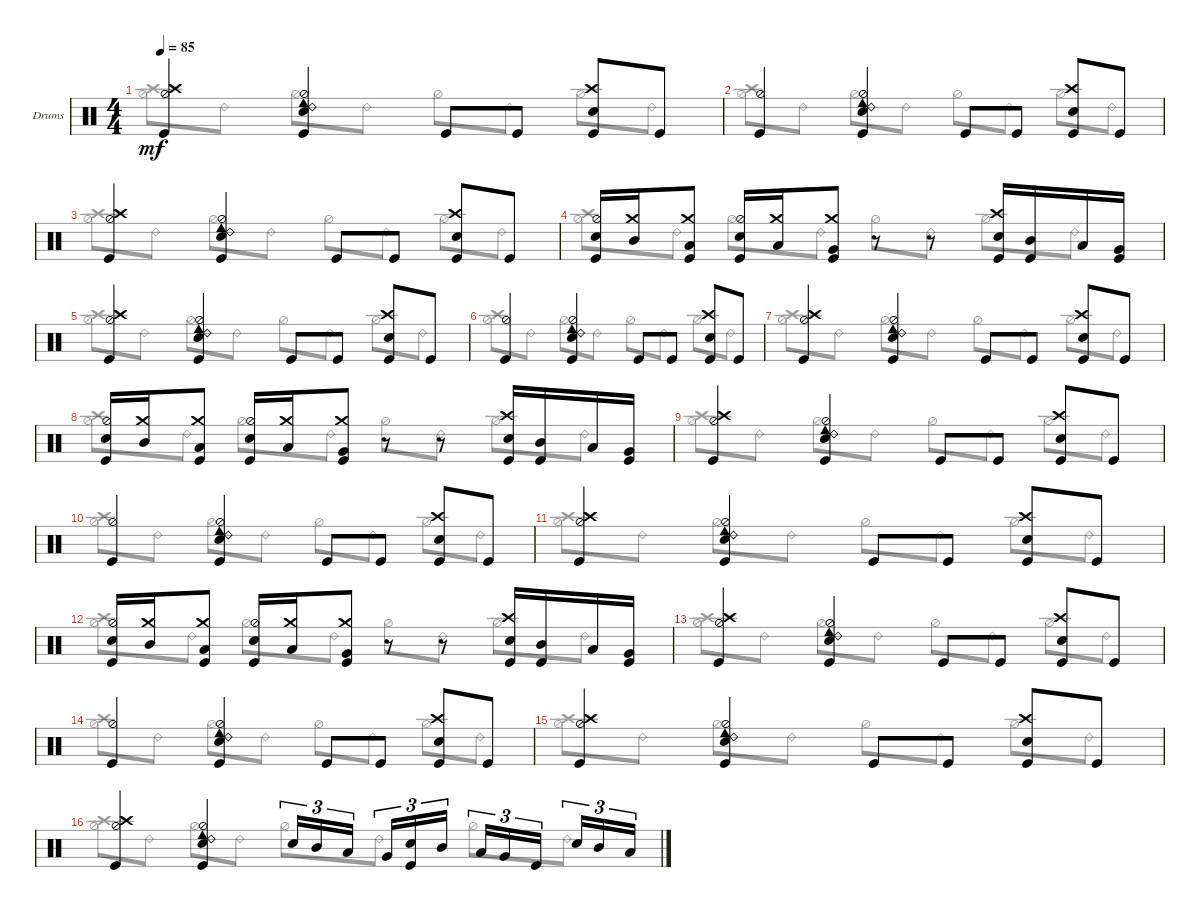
\defaultSystemsLayout 4
\bracketExtendMode groupsimilarinstruments
\firstSystemTrackNameOrientation horizontal
\otherSystemsTrackNameOrientation horizontal
\track ("Drumkit" "Drums") {instrument percussion}
\staff {score}
\articulation defaults
\voice
\ts (4 4)
\tempo 85
\clef neutral
\scale
0.333333
\ks c
("Kick (hit)" "Hi-Hat (half)" "Crash high (hit)").4{dy mf} ("Snare (hit) 2" "Hi-Hat (half)" "Cowbell low (hit)" "Ride (bell) 2" "Kick (hit)").4 "Kick (hit)".8 "Kick (hit)".8 ("Snare (hit) 2" "Kick (hit)" "Crash high (hit)").8 "Kick (hit)".8 |
\scale
0.333333 ("Kick (hit)" "Hi-Hat (half)").4 ("Snare (hit) 2" "Hi-Hat (half)" "Cowbell low (hit)" "Ride (bell) 2" "Kick (hit)").4 "Kick (hit)".8 "Kick (hit)".8 ("Snare (hit) 2" "Kick (hit)" "Crash high (hit)").8 "Kick (hit)".8 |
\scale
0.333333 ("Kick (hit)" "Hi-Hat (half)" "Crash high (hit)").4 ("Snare (hit) 2" "Hi-Hat (half)" "Cowbell low (hit)" "Ride (bell) 2" "Kick (hit)").4 "Kick (hit)".8 "Kick (hit)".8 ("Snare (hit) 2" "Kick (hit)" "Crash high (hit)").8 "Kick (hit)".8 |
\scale
0.333333 ("Kick (hit)" "Hi-Hat (half)" "Snare (hit) 2").16 ("Crash medium (hit)" "Mid Tom (hit)").16 ("Kick (hit)" "Low Tom (hit)" "Crash medium (hit)").8 ("Kick (hit)" "Hi-Hat (half)" "Snare (hit) 2").16 ("Crash medium (hit)" "Low Tom (hit)").16 ("Kick (hit)" "Crash medium (hit)" "Very Low Tom (hit)").8 r.8 r.8 ("Snare (hit) 2" "Kick (hit)" "Crash high (hit)").16 ("Kick (hit)" "Mid Tom (hit)").16 "Low Tom (hit)".16 ("Very Low Tom (hit)" "Kick (hit)").16 |
\scale
0.333333 ("Kick (hit)" "Hi-Hat (half)" "Crash high (hit)").4 ("Snare (hit) 2" "Hi-Hat (half)" "Cowbell low (hit)" "Ride (bell) 2" "Kick (hit)").4 "Kick (hit)".8 "Kick (hit)".8 ("Snare (hit) 2" "Kick (hit)" "Crash high (hit)").8 "Kick (hit)".8 |
\scale
0.333333 ("Kick (hit)" "Hi-Hat (half)").4 ("Snare (hit) 2" "Hi-Hat (half)" "Cowbell low (hit)" "Ride (bell) 2" "Kick (hit)").4 "Kick (hit)".8 "Kick (hit)".8 ("Snare (hit) 2" "Kick (hit)" "Crash high (hit)").8 "Kick (hit)".8 |
\scale
0.333333 ("Kick (hit)" "Hi-Hat (half)" "Crash high (hit)").4 ("Snare (hit) 2" "Hi-Hat (half)" "Cowbell low (hit)" "Ride (bell) 2" "Kick (hit)").4 "Kick (hit)".8 "Kick (hit)".8 ("Snare (hit) 2" "Kick (hit)" "Crash high (hit)").8 "Kick (hit)".8 |
\scale
0.333333 ("Kick (hit)" "Hi-Hat (half)" "Snare (hit) 2").16 ("Crash medium (hit)" "Mid Tom (hit)").16 ("Kick (hit)" "Low Tom (hit)" "Crash medium (hit)").8 ("Kick (hit)" "Hi-Hat (half)" "Snare (hit) 2").16 ("Crash medium (hit)" "Low Tom (hit)").16 ("Kick (hit)" "Crash medium (hit)" "Very Low Tom (hit)").8 r.8 r.8 ("Snare (hit) 2" "Kick (hit)" "Crash high (hit)").16 ("Kick (hit)" "Mid Tom (hit)").16 "Low Tom (hit)".16 ("Very Low Tom (hit)" "Kick (hit)").16 |
\scale
0.333333 ("Kick (hit)" "Hi-Hat (half)" "Crash high (hit)").4 ("Snare (hit) 2" "Hi-Hat (half)" "Cowbell low (hit)" "Ride (bell) 2" "Kick (hit)").4 "Kick (hit)".8 "Kick (hit)".8 ("Snare (hit) 2" "Kick (hit)" "Crash high (hit)").8 "Kick (hit)".8 |
\scale
0.333333 ("Kick (hit)" "Hi-Hat (half)").4 ("Snare (hit) 2" "Hi-Hat (half)" "Cowbell low (hit)" "Ride (bell) 2" "Kick (hit)").4 "Kick (hit)".8 "Kick (hit)".8 ("Snare (hit) 2" "Kick (hit)" "Crash high (hit)").8 "Kick (hit)".8 |
\scale
0.333333 ("Kick (hit)" "Hi-Hat (half)" "Crash high (hit)").4 ("Snare (hit) 2" "Hi-Hat (half)" "Cowbell low (hit)" "Ride (bell) 2" "Kick (hit)").4 "Kick (hit)".8 "Kick (hit)".8 ("Snare (hit) 2" "Kick (hit)" "Crash high (hit)").8 "Kick (hit)".8 |
\scale
0.333333 ("Kick (hit)" "Hi-Hat (half)" "Snare (hit) 2").16 ("Crash medium (hit)" "Mid Tom (hit)").16 ("Kick (hit)" "Low Tom (hit)" "Crash medium (hit)").8 ("Kick (hit)" "Hi-Hat (half)" "Snare (hit) 2").16 ("Crash medium (hit)" "Low Tom (hit)").16 ("Kick (hit)" "Crash medium (hit)" "Very Low Tom (hit)").8 r.8 r.8 ("Snare (hit) 2" "Kick (hit)" "Crash high (hit)").16 ("Kick (hit)" "Mid Tom (hit)").16 "Low Tom (hit)".16 ("Very Low Tom (hit)" "Kick (hit)").16 |
\scale
0.333333 ("Kick (hit)" "Hi-Hat (half)" "Crash high (hit)").4 ("Snare (hit) 2" "Hi-Hat (half)" "Cowbell low (hit)" "Ride (bell) 2" "Kick (hit)").4 "Kick (hit)".8 "Kick (hit)".8 ("Snare (hit) 2" "Kick (hit)" "Crash high (hit)").8 "Kick (hit)".8 |
\scale
0.333333 ("Kick (hit)" "Hi-Hat (half)").4 ("Snare (hit) 2" "Hi-Hat (half)" "Cowbell low (hit)" "Ride (bell) 2" "Kick (hit)").4 "Kick (hit)".8 "Kick (hit)".8 ("Snare (hit) 2" "Kick (hit)" "Crash high (hit)").8 "Kick (hit)".8 |
\scale
0.333333 ("Kick (hit)" "Hi-Hat (half)" "Crash high (hit)").4 ("Snare (hit) 2" "Hi-Hat (half)" "Cowbell low (hit)" "Ride (bell) 2" "Kick (hit)").4 "Kick (hit)".8 "Kick (hit)".8 ("Snare (hit) 2" "Kick (hit)" "Crash high (hit)").8 "Kick (hit)".8 |
\scale
0.333333 ("Kick (hit)" "Hi-Hat (half)" "Crash high (hit)").4 ("Snare (hit) 2" "Hi-Hat (half)" "Cowbell low (hit)" "Ride (bell) 2" "Kick (hit)").4 "Snare (hit) 2".16{tu (3 2)} "Mid Tom (hit)".16{tu (3 2)} "Low Tom (hit)".16{tu (3 2)} "Very Low Tom (hit)".16{tu (3 2)} ("Kick (hit)" "Snare (hit) 2").16{tu (3 2)} "Mid Tom (hit)".16{tu (3 2)} "Low Tom (hit)".16{tu (3 2)} "Very Low Tom (hit)".16{tu (3 2)} "Kick (hit)".16{tu (3 2)} "Snare (hit) 2".16{tu (3 2)} "Mid Tom (hit)".16{tu (3 2)} "Low Tom (hit)".16{tu (3 2)}
\voice
\clef neutral
\ottava regular
\simile none
\scale
0.333333
\ks c
("Hi-Hat (half)" "Crash high (hit)").8{dy mf} "Ride (bell) 2".8 "Hi-Hat (half)".8 "Ride (bell) 2".8 "Hi-Hat (half)".8 "Ride (bell) 2".8 "Hi-Hat (half)".8 "Ride (bell) 2".8 |
\scale
0.333333 ("Hi-Hat (half)" "Crash high (hit)").8 "Ride (bell) 2".8 "Hi-Hat (half)".8 "Ride (bell) 2".8 "Hi-Hat (half)".8 "Ride (bell) 2".8 "Hi-Hat (half)".8 "Ride (bell) 2".8 |
\scale
0.333333 ("Hi-Hat (half)" "Crash high (hit)").8 "Ride (bell) 2".8 "Hi-Hat (half)".8 "Ride (bell) 2".8 "Hi-Hat (half)".8 "Ride (bell) 2".8 "Hi-Hat (half)".8 "Ride (bell) 2".8 |
\scale
0.333333 ("Hi-Hat (half)" "Crash high (hit)").8 "Ride (bell) 2".8 "Hi-Hat (half)".8 "Ride (bell) 2".8 "Hi-Hat (half)".8 "Ride (bell) 2".8 "Hi-Hat (half)".8 "Ride (bell) 2".8 |
\scale
0.333333 ("Hi-Hat (half)" "Crash high (hit)").8 "Ride (bell) 2".8 "Hi-Hat (half)".8 "Ride (bell) 2".8 "Hi-Hat (half)".8 "Ride (bell) 2".8 "Hi-Hat (half)".8 "Ride (bell) 2".8 |
\scale
0.333333 ("Hi-Hat (half)" "Crash high (hit)").8 "Ride (bell) 2".8 "Hi-Hat (half)".8 "Ride (bell) 2".8 "Hi-Hat (half)".8 "Ride (bell) 2".8 "Hi-Hat (half)".8 "Ride (bell) 2".8 |
\scale
0.333333 ("Hi-Hat (half)" "Crash high (hit)").8 "Ride (bell) 2".8 "Hi-Hat (half)".8 "Ride (bell) 2".8 "Hi-Hat (half)".8 "Ride (bell) 2".8 "Hi-Hat (half)".8 "Ride (bell) 2".8 |
\scale
0.333333 ("Hi-Hat (half)" "Crash high (hit)").8 "Ride (bell) 2".8 "Hi-Hat (half)".8 "Ride (bell) 2".8 "Hi-Hat (half)".8 "Ride (bell) 2".8 "Hi-Hat (half)".8 "Ride (bell) 2".8 |
\scale
0.333333 ("Hi-Hat (half)" "Crash high (hit)").8 "Ride (bell) 2".8 "Hi-Hat (half)".8 "Ride (bell) 2".8 "Hi-Hat (half)".8 "Ride (bell) 2".8 "Hi-Hat (half)".8 "Ride (bell) 2".8 |
\scale
0.333333 ("Hi-Hat (half)" "Crash high (hit)").8 "Ride (bell) 2".8 "Hi-Hat (half)".8 "Ride (bell) 2".8 "Hi-Hat (half)".8 "Ride (bell) 2".8 "Hi-Hat (half)".8 "Ride (bell) 2".8 |
\scale
0.333333 ("Hi-Hat (half)" "Crash high (hit)").8 "Ride (bell) 2".8 "Hi-Hat (half)".8 "Ride (bell) 2".8 "Hi-Hat (half)".8 "Ride (bell) 2".8 "Hi-Hat (half)".8 "Ride (bell) 2".8 |
\scale
0.333333 ("Hi-Hat (half)" "Crash high (hit)").8 "Ride (bell) 2".8 "Hi-Hat (half)".8 "Ride (bell) 2".8 "Hi-Hat (half)".8 "Ride (bell) 2".8 "Hi-Hat (half)".8 "Ride (bell) 2".8 |
\scale
0.333333 ("Hi-Hat (half)" "Crash high (hit)").8 "Ride (bell) 2".8 "Hi-Hat (half)".8 "Ride (bell) 2".8 "Hi-Hat (half)".8 "Ride (bell) 2".8 "Hi-Hat (half)".8 "Ride (bell) 2".8 |
\scale
0.333333 ("Hi-Hat (half)" "Crash high (hit)").8 "Ride (bell) 2".8 "Hi-Hat (half)".8 "Ride (bell) 2".8 "Hi-Hat (half)".8 "Ride (bell) 2".8 "Hi-Hat (half)".8 "Ride (bell) 2".8 |
\scale
0.333333 ("Hi-Hat (half)" "Crash high (hit)").8 "Ride (bell) 2".8 "Hi-Hat (half)".8 "Ride (bell) 2".8 "Hi-Hat (half)".8 "Ride (bell) 2".8 "Hi-Hat (half)".8 "Ride (bell) 2".8 |
\scale
0.333333 ("Hi-Hat (half)" "Crash high (hit)").8 "Ride (bell) 2".8 "Hi-Hat (half)".8 "Ride (bell) 2".8 "Hi-Hat (half)".8 "Ride (bell) 2".8 "Hi-Hat (half)".8 "Ride (bell) 2".8
